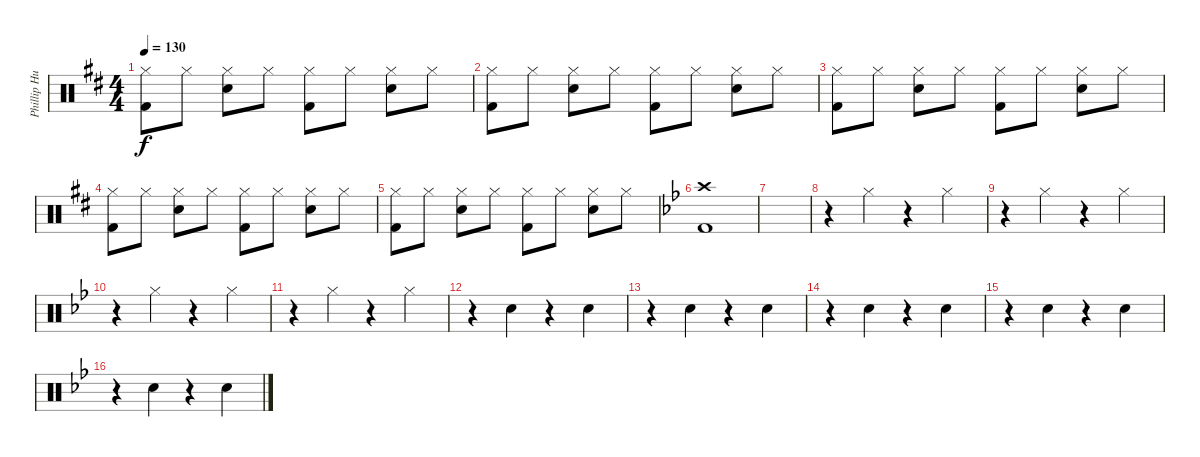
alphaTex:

\track ("Phillip Hungh" "Phillip Hu") {instrument percussion}
\staff {score}
\articulation defaults
\ts (4 4)
\tempo 130
\clef neutral
\ks d
("Hi-Hat (closed)" "Kick (hit) 2").8{dy f} "Hi-Hat (closed)".8 ("Hi-Hat (closed)" "Snare (hit) 2").8 "Hi-Hat (closed)".8 ("Hi-Hat (closed)" "Kick (hit) 2").8 "Hi-Hat (closed)".8 ("Hi-Hat (closed)" "Snare (hit) 2").8 "Hi-Hat (closed)".8 |
("Hi-Hat (closed)" "Kick (hit) 2").8 "Hi-Hat (closed)".8 ("Hi-Hat (closed)" "Snare (hit) 2").8 "Hi-Hat (closed)".8 ("Hi-Hat (closed)" "Kick (hit) 2").8 "Hi-Hat (closed)".8 ("Hi-Hat (closed)" "Snare (hit) 2").8 "Hi-Hat (closed)".8 |
("Hi-Hat (closed)" "Kick (hit) 2").8 "Hi-Hat (closed)".8 ("Hi-Hat (closed)" "Snare (hit) 2").8 "Hi-Hat (closed)".8 ("Hi-Hat (closed)" "Kick (hit) 2").8 "Hi-Hat (closed)".8 ("Hi-Hat (closed)" "Snare (hit) 2").8 "Hi-Hat (closed)".8 |
("Hi-Hat (closed)" "Kick (hit) 2").8 "Hi-Hat (closed)".8 ("Hi-Hat (closed)" "Snare (hit) 2").8 "Hi-Hat (closed)".8 ("Hi-Hat (closed)" "Kick (hit) 2").8 "Hi-Hat (closed)".8 ("Hi-Hat (closed)" "Snare (hit) 2").8 "Hi-Hat (closed)".8 |
("Hi-Hat (closed)" "Kick (hit) 2").8 "Hi-Hat (closed)".8 ("Hi-Hat (closed)" "Snare (hit) 2").8 "Hi-Hat (closed)".8 ("Hi-Hat (closed)" "Kick (hit) 2").8 "Hi-Hat (closed)".8 ("Hi-Hat (closed)" "Snare (hit) 2").8 "Hi-Hat (closed)".8 |
\ks bb
("Crash high (hit)" "Kick (hit) 2").1 |
|
r.4 "Hi-Hat (closed)".4 r.4 "Hi-Hat (closed)".4 |
r.4 "Hi-Hat (closed)".4 r.4 "Hi-Hat (closed)".4 |
r.4 "Hi-Hat (closed)".4 r.4 "Hi-Hat (closed)".4 |
r.4 "Hi-Hat (closed)".4 r.4 "Hi-Hat (closed)".4 |
r.4 "Snare (hit) 2".4 r.4 "Snare (hit) 2".4 |
r.4 "Snare (hit) 2".4 r.4 "Snare (hit) 2".4 |
r.4 "Snare (hit) 2".4 r.4 "Snare (hit) 2".4 |
r.4 "Snare (hit) 2".4 r.4 "Snare (hit) 2".4 |
r.4 "Snare (hit) 2".4 r.4 "Snare (hit) 2".4
